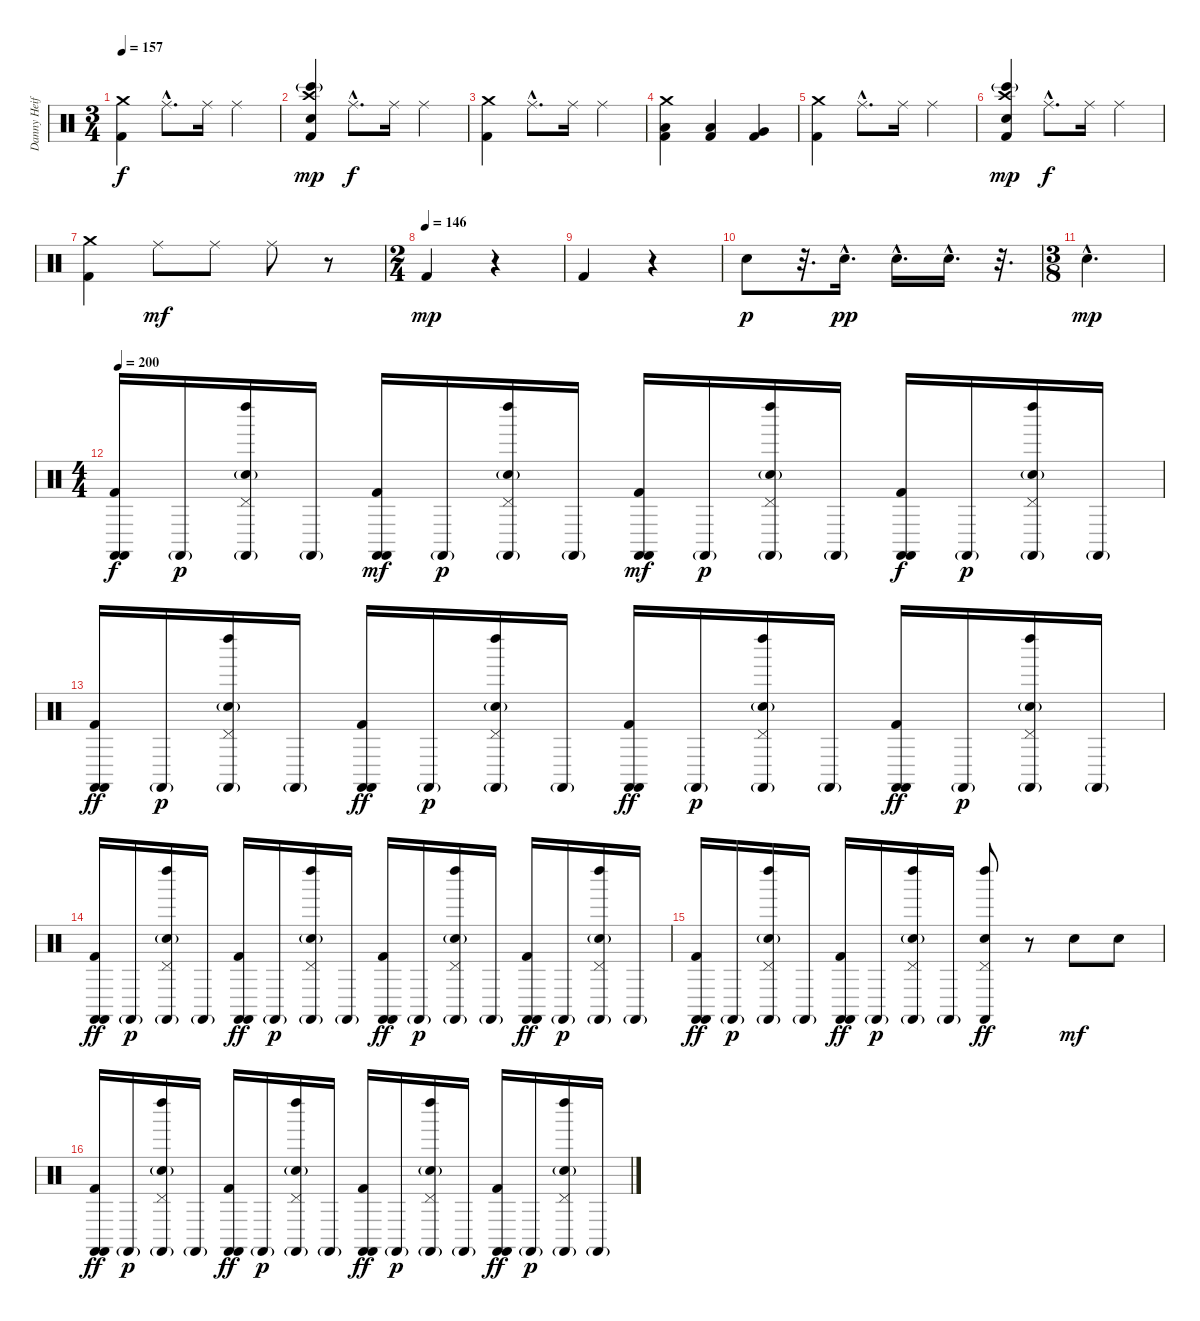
\track ("Danny Heifetz - Drums" "Danny Heif") {instrument percussion}
\staff {score}
\articulation defaults
\ts (3 4)
\tempo 157
\clef neutral
\ks c
("Crash medium (hit)" "Kick (hit) 2").4{dy f} "Ride (middle)"{hac}.8{d} "Ride (middle)".16 "Ride (middle)".4 |
("Crash high (hit)" "Bongo High (hit)"{g} "Electric Snare (hit)" "Kick (hit) 2").4{dy mp} "Ride (middle)"{hac}.8{d dy f} "Ride (middle)".16 "Ride (middle)".4 |
("Crash medium (hit)" "Kick (hit) 2").4 "Ride (middle)"{hac}.8{d} "Ride (middle)".16 "Ride (middle)".4 |
("Crash medium (hit)" "Low Tom (hit)" "Kick (hit) 2").4 ("Low Floor Tom (hit)" "Kick (hit) 2").4 ("Very Low Tom (hit)" "Kick (hit) 2").4 |
("Crash medium (hit)" "Kick (hit) 2").4 "Ride (middle)"{hac}.8{d} "Ride (middle)".16 "Ride (middle)".4 |
("Crash high (hit)" "Bongo High (hit)"{g} "Electric Snare (hit)" "Kick (hit) 2").4{dy mp} "Ride (middle)"{hac}.8{d dy f} "Ride (middle)".16 "Ride (middle)".4 |
("Crash medium (hit)" "Kick (hit) 2").4 "Ride (middle)".8{dy mf} "Ride (middle)".8 "Ride (middle)".8 r.8 |
\ts (2 4)
\tempo (146)
"Kick (hit) 2".4{dy mp} r.4 |
"Kick (hit) 2".4 r.4 |
"Electric Snare (hit)".8{dy p} r.32{d} "Electric Snare (hit)"{hac}.16{d dy pp} "Electric Snare (hit)"{hac}.16{d} "Electric Snare (hit)"{hac}.16{d} r.32{d} |
\ts (3 8)
"Electric Snare (hit)"{hac}.4{d dy mp} |
\ts (4 4)
\tempo 200
("Kick (hit) 2" "Castanets (hit)" "Castanets (hit)").16{dy f volume 16} "Castanets (hit)"{g}.16{dy p} ("Left Maraca (hit)" "Pedal Hi-Hat (hit)" "Electric Snare (hit)"{g} "Castanets (hit)"{g}).16 "Castanets (hit)"{g}.16 ("Kick (hit) 2" "Castanets (hit)" "Castanets (hit)").16{dy mf} "Castanets (hit)"{g}.16{dy p} ("Left Maraca (hit)" "Pedal Hi-Hat (hit)" "Electric Snare (hit)"{g} "Castanets (hit)"{g}).16 "Castanets (hit)"{g}.16 ("Kick (hit) 2" "Castanets (hit)" "Castanets (hit)").16{dy mf} "Castanets (hit)"{g}.16{dy p} ("Left Maraca (hit)" "Pedal Hi-Hat (hit)" "Electric Snare (hit)"{g} "Castanets (hit)"{g}).16 "Castanets (hit)"{g}.16 ("Kick (hit) 2" "Castanets (hit)" "Castanets (hit)").16{dy f} "Castanets (hit)"{g}.16{dy p} ("Left Maraca (hit)" "Pedal Hi-Hat (hit)" "Electric Snare (hit)"{g} "Castanets (hit)"{g}).16 "Castanets (hit)"{g}.16 |
("Kick (hit) 2" "Castanets (hit)" "Castanets (hit)").16{dy ff} "Castanets (hit)"{g}.16{dy p} ("Left Maraca (hit)" "Pedal Hi-Hat (hit)" "Electric Snare (hit)"{g} "Castanets (hit)"{g}).16 "Castanets (hit)"{g}.16 ("Kick (hit) 2" "Castanets (hit)" "Castanets (hit)").16{dy ff} "Castanets (hit)"{g}.16{dy p} ("Left Maraca (hit)" "Pedal Hi-Hat (hit)" "Electric Snare (hit)"{g} "Castanets (hit)"{g}).16 "Castanets (hit)"{g}.16 ("Kick (hit) 2" "Castanets (hit)" "Castanets (hit)").16{dy ff} "Castanets (hit)"{g}.16{dy p} ("Left Maraca (hit)" "Pedal Hi-Hat (hit)" "Electric Snare (hit)"{g} "Castanets (hit)"{g}).16 "Castanets (hit)"{g}.16 ("Kick (hit) 2" "Castanets (hit)" "Castanets (hit)").16{dy ff} "Castanets (hit)"{g}.16{dy p} ("Left Maraca (hit)" "Pedal Hi-Hat (hit)" "Electric Snare (hit)"{g} "Castanets (hit)"{g}).16 "Castanets (hit)"{g}.16 |
("Kick (hit) 2" "Castanets (hit)" "Castanets (hit)").16{dy ff} "Castanets (hit)"{g}.16{dy p} ("Left Maraca (hit)" "Pedal Hi-Hat (hit)" "Electric Snare (hit)"{g} "Castanets (hit)"{g}).16 "Castanets (hit)"{g}.16 ("Kick (hit) 2" "Castanets (hit)" "Castanets (hit)").16{dy ff} "Castanets (hit)"{g}.16{dy p} ("Left Maraca (hit)" "Pedal Hi-Hat (hit)" "Electric Snare (hit)"{g} "Castanets (hit)"{g}).16 "Castanets (hit)"{g}.16 ("Kick (hit) 2" "Castanets (hit)" "Castanets (hit)").16{dy ff} "Castanets (hit)"{g}.16{dy p} ("Left Maraca (hit)" "Pedal Hi-Hat (hit)" "Electric Snare (hit)"{g} "Castanets (hit)"{g}).16 "Castanets (hit)"{g}.16 ("Kick (hit) 2" "Castanets (hit)" "Castanets (hit)").16{dy ff} "Castanets (hit)"{g}.16{dy p} ("Left Maraca (hit)" "Pedal Hi-Hat (hit)" "Electric Snare (hit)"{g} "Castanets (hit)"{g}).16 "Castanets (hit)"{g}.16 |
("Kick (hit) 2" "Castanets (hit)" "Castanets (hit)").16{dy ff} "Castanets (hit)"{g}.16{dy p} ("Left Maraca (hit)" "Pedal Hi-Hat (hit)" "Electric Snare (hit)"{g} "Castanets (hit)"{g}).16 "Castanets (hit)"{g}.16 ("Kick (hit) 2" "Castanets (hit)" "Castanets (hit)").16{dy ff} "Castanets (hit)"{g}.16{dy p} ("Left Maraca (hit)" "Pedal Hi-Hat (hit)" "Electric Snare (hit)"{g} "Castanets (hit)"{g}).16 "Castanets (hit)"{g}.16 ("Left Maraca (hit)" "Pedal Hi-Hat (hit)" "Electric Snare (hit)" "Castanets (hit)").8{dy ff} r.8 "Electric Snare (hit)".8{dy mf} "Electric Snare (hit)".8 |
("Kick (hit) 2" "Castanets (hit)" "Castanets (hit)").16{dy ff} "Castanets (hit)"{g}.16{dy p} ("Left Maraca (hit)" "Pedal Hi-Hat (hit)" "Electric Snare (hit)"{g} "Castanets (hit)"{g}).16 "Castanets (hit)"{g}.16 ("Kick (hit) 2" "Castanets (hit)" "Castanets (hit)").16{dy ff} "Castanets (hit)"{g}.16{dy p} ("Left Maraca (hit)" "Pedal Hi-Hat (hit)" "Electric Snare (hit)"{g} "Castanets (hit)"{g}).16 "Castanets (hit)"{g}.16 ("Kick (hit) 2" "Castanets (hit)" "Castanets (hit)").16{dy ff} "Castanets (hit)"{g}.16{dy p} ("Left Maraca (hit)" "Pedal Hi-Hat (hit)" "Electric Snare (hit)"{g} "Castanets (hit)"{g}).16 "Castanets (hit)"{g}.16 ("Kick (hit) 2" "Castanets (hit)" "Castanets (hit)").16{dy ff} "Castanets (hit)"{g}.16{dy p} ("Left Maraca (hit)" "Pedal Hi-Hat (hit)" "Electric Snare (hit)"{g} "Castanets (hit)"{g}).16 "Castanets (hit)"{g}.16
